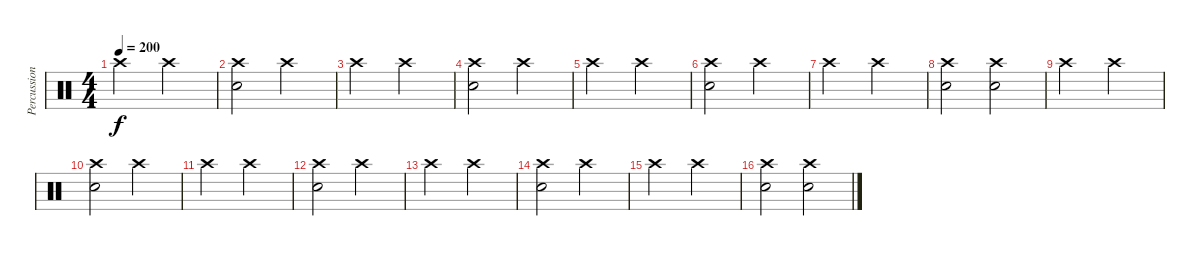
\track ("Percussion" "Percussion") {instrument percussion}
\staff {score}
\articulation defaults
\ts (4 4)
\tempo 200
\clef neutral
\ks c "Crash high (hit)".2{dy f} "Crash high (hit)".2
|
("Crash high (hit)" "Snare (hit) 2").2 "Crash high (hit)".2 |
"Crash high (hit)".2 "Crash high (hit)".2 |
("Crash high (hit)" "Snare (hit) 2").2 "Crash high (hit)".2 |
"Crash high (hit)".2 "Crash high (hit)".2 |
("Crash high (hit)" "Snare (hit) 2").2 "Crash high (hit)".2 |
"Crash high (hit)".2 "Crash high (hit)".2 |
("Crash high (hit)" "Snare (hit) 2").2 ("Crash high (hit)" "Snare (hit) 2").2 |
"Crash high (hit)".2 "Crash high (hit)".2 |
("Crash high (hit)" "Snare (hit) 2").2 "Crash high (hit)".2 |
"Crash high (hit)".2 "Crash high (hit)".2 |
("Crash high (hit)" "Snare (hit) 2").2 "Crash high (hit)".2 |
"Crash high (hit)".2 "Crash high (hit)".2 |
("Crash high (hit)" "Snare (hit) 2").2 "Crash high (hit)".2 |
"Crash high (hit)".2 "Crash high (hit)".2 |
("Crash high (hit)" "Snare (hit) 2").2 ("Crash high (hit)" "Snare (hit) 2").2
